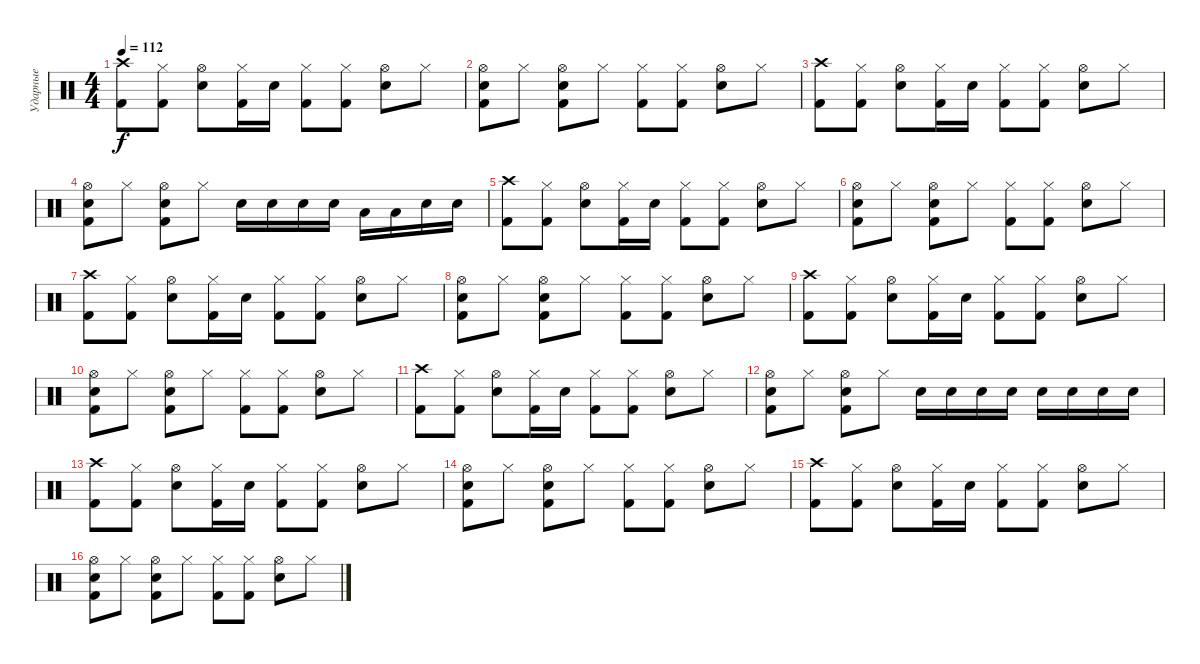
\track ("Ударные" "Ударные") {instrument percussion}
\staff {score}
\articulation defaults
\ts (4 4)
\tempo 112
\clef neutral
\ks c
("Crash high (hit)" "Kick (hit) 2").8{dy f} ("Hi-Hat (closed)" "Kick (hit) 2").8 ("Hi-Hat (open)" "Snare (hit) 2").8 ("Hi-Hat (closed)" "Kick (hit) 2").16 "Snare (hit) 2".16 ("Hi-Hat (closed)" "Kick (hit) 2").8 ("Hi-Hat (closed)" "Kick (hit) 2").8 ("Hi-Hat (open)" "Snare (hit) 2").8 "Hi-Hat (closed)".8 |
("Hi-Hat (open)" "Kick (hit) 2" "Snare (hit) 2").8 "Hi-Hat (closed)".8 ("Hi-Hat (open)" "Snare (hit) 2" "Kick (hit) 2").8 "Hi-Hat (closed)".8 ("Hi-Hat (closed)" "Kick (hit) 2").8 ("Hi-Hat (closed)" "Kick (hit) 2").8 ("Hi-Hat (open)" "Snare (hit) 2").8 "Hi-Hat (closed)".8 |
("Crash high (hit)" "Kick (hit) 2").8 ("Hi-Hat (closed)" "Kick (hit) 2").8 ("Hi-Hat (open)" "Snare (hit) 2").8 ("Hi-Hat (closed)" "Kick (hit) 2").16 "Snare (hit) 2".16 ("Hi-Hat (closed)" "Kick (hit) 2").8 ("Hi-Hat (closed)" "Kick (hit) 2").8 ("Hi-Hat (open)" "Snare (hit) 2").8 "Hi-Hat (closed)".8 |
("Hi-Hat (open)" "Kick (hit) 2" "Snare (hit) 2").8 "Hi-Hat (closed)".8 ("Hi-Hat (open)" "Snare (hit) 2" "Kick (hit) 2").8 "Hi-Hat (closed)".8 "Snare (hit) 2".16 "Snare (hit) 2".16 "Snare (hit) 2".16 "Snare (hit) 2".16 "Low Floor Tom (hit)".16 "Low Floor Tom (hit)".16 "Snare (hit) 2".16 "Snare (hit) 2".16 |
("Crash high (hit)" "Kick (hit) 2").8 ("Hi-Hat (closed)" "Kick (hit) 2").8 ("Hi-Hat (open)" "Snare (hit) 2").8 ("Hi-Hat (closed)" "Kick (hit) 2").16 "Snare (hit) 2".16 ("Hi-Hat (closed)" "Kick (hit) 2").8 ("Hi-Hat (closed)" "Kick (hit) 2").8 ("Hi-Hat (open)" "Snare (hit) 2").8 "Hi-Hat (closed)".8 |
("Hi-Hat (open)" "Kick (hit) 2" "Snare (hit) 2").8 "Hi-Hat (closed)".8 ("Hi-Hat (open)" "Snare (hit) 2" "Kick (hit) 2").8 "Hi-Hat (closed)".8 ("Hi-Hat (closed)" "Kick (hit) 2").8 ("Hi-Hat (closed)" "Kick (hit) 2").8 ("Hi-Hat (open)" "Snare (hit) 2").8 "Hi-Hat (closed)".8 |
("Crash high (hit)" "Kick (hit) 2").8 ("Hi-Hat (closed)" "Kick (hit) 2").8 ("Hi-Hat (open)" "Snare (hit) 2").8 ("Hi-Hat (closed)" "Kick (hit) 2").16 "Snare (hit) 2".16 ("Hi-Hat (closed)" "Kick (hit) 2").8 ("Hi-Hat (closed)" "Kick (hit) 2").8 ("Hi-Hat (open)" "Snare (hit) 2").8 "Hi-Hat (closed)".8 |
("Hi-Hat (open)" "Kick (hit) 2" "Snare (hit) 2").8 "Hi-Hat (closed)".8 ("Hi-Hat (open)" "Snare (hit) 2" "Kick (hit) 2").8 "Hi-Hat (closed)".8 ("Hi-Hat (closed)" "Kick (hit) 2").8 ("Hi-Hat (closed)" "Kick (hit) 2").8 ("Hi-Hat (open)" "Snare (hit) 2").8 "Hi-Hat (closed)".8 |
("Crash high (hit)" "Kick (hit) 2").8 ("Hi-Hat (closed)" "Kick (hit) 2").8 ("Hi-Hat (open)" "Snare (hit) 2").8 ("Hi-Hat (closed)" "Kick (hit) 2").16 "Snare (hit) 2".16 ("Hi-Hat (closed)" "Kick (hit) 2").8 ("Hi-Hat (closed)" "Kick (hit) 2").8 ("Hi-Hat (open)" "Snare (hit) 2").8 "Hi-Hat (closed)".8 |
("Hi-Hat (open)" "Kick (hit) 2" "Snare (hit) 2").8 "Hi-Hat (closed)".8 ("Hi-Hat (open)" "Snare (hit) 2" "Kick (hit) 2").8 "Hi-Hat (closed)".8 ("Hi-Hat (closed)" "Kick (hit) 2").8 ("Hi-Hat (closed)" "Kick (hit) 2").8 ("Hi-Hat (open)" "Snare (hit) 2").8 "Hi-Hat (closed)".8 |
("Crash high (hit)" "Kick (hit) 2").8 ("Hi-Hat (closed)" "Kick (hit) 2").8 ("Hi-Hat (open)" "Snare (hit) 2").8 ("Hi-Hat (closed)" "Kick (hit) 2").16 "Snare (hit) 2".16 ("Hi-Hat (closed)" "Kick (hit) 2").8 ("Hi-Hat (closed)" "Kick (hit) 2").8 ("Hi-Hat (open)" "Snare (hit) 2").8 "Hi-Hat (closed)".8 |
("Hi-Hat (open)" "Kick (hit) 2" "Snare (hit) 2").8 "Hi-Hat (closed)".8 ("Hi-Hat (open)" "Snare (hit) 2" "Kick (hit) 2").8 "Hi-Hat (closed)".8 "Snare (hit) 2".16 "Snare (hit) 2".16 "Snare (hit) 2".16 "Snare (hit) 2".16 "Snare (hit) 2".16 "Snare (hit) 2".16 "Snare (hit) 2".16 "Snare (hit) 2".16 |
("Crash high (hit)" "Kick (hit) 2").8 ("Hi-Hat (closed)" "Kick (hit) 2").8 ("Hi-Hat (open)" "Snare (hit) 2").8 ("Hi-Hat (closed)" "Kick (hit) 2").16 "Snare (hit) 2".16 ("Hi-Hat (closed)" "Kick (hit) 2").8 ("Hi-Hat (closed)" "Kick (hit) 2").8 ("Hi-Hat (open)" "Snare (hit) 2").8 "Hi-Hat (closed)".8 |
("Hi-Hat (open)" "Kick (hit) 2" "Snare (hit) 2").8 "Hi-Hat (closed)".8 ("Hi-Hat (open)" "Snare (hit) 2" "Kick (hit) 2").8 "Hi-Hat (closed)".8 ("Hi-Hat (closed)" "Kick (hit) 2").8 ("Hi-Hat (closed)" "Kick (hit) 2").8 ("Hi-Hat (open)" "Snare (hit) 2").8 "Hi-Hat (closed)".8 |
("Crash high (hit)" "Kick (hit) 2").8 ("Hi-Hat (closed)" "Kick (hit) 2").8 ("Hi-Hat (open)" "Snare (hit) 2").8 ("Hi-Hat (closed)" "Kick (hit) 2").16 "Snare (hit) 2".16 ("Hi-Hat (closed)" "Kick (hit) 2").8 ("Hi-Hat (closed)" "Kick (hit) 2").8 ("Hi-Hat (open)" "Snare (hit) 2").8 "Hi-Hat (closed)".8 |
("Hi-Hat (open)" "Kick (hit) 2" "Snare (hit) 2").8 "Hi-Hat (closed)".8 ("Hi-Hat (open)" "Snare (hit) 2" "Kick (hit) 2").8 "Hi-Hat (closed)".8 ("Hi-Hat (closed)" "Kick (hit) 2").8 ("Hi-Hat (closed)" "Kick (hit) 2").8 ("Hi-Hat (open)" "Snare (hit) 2").8 "Hi-Hat (closed)".8
